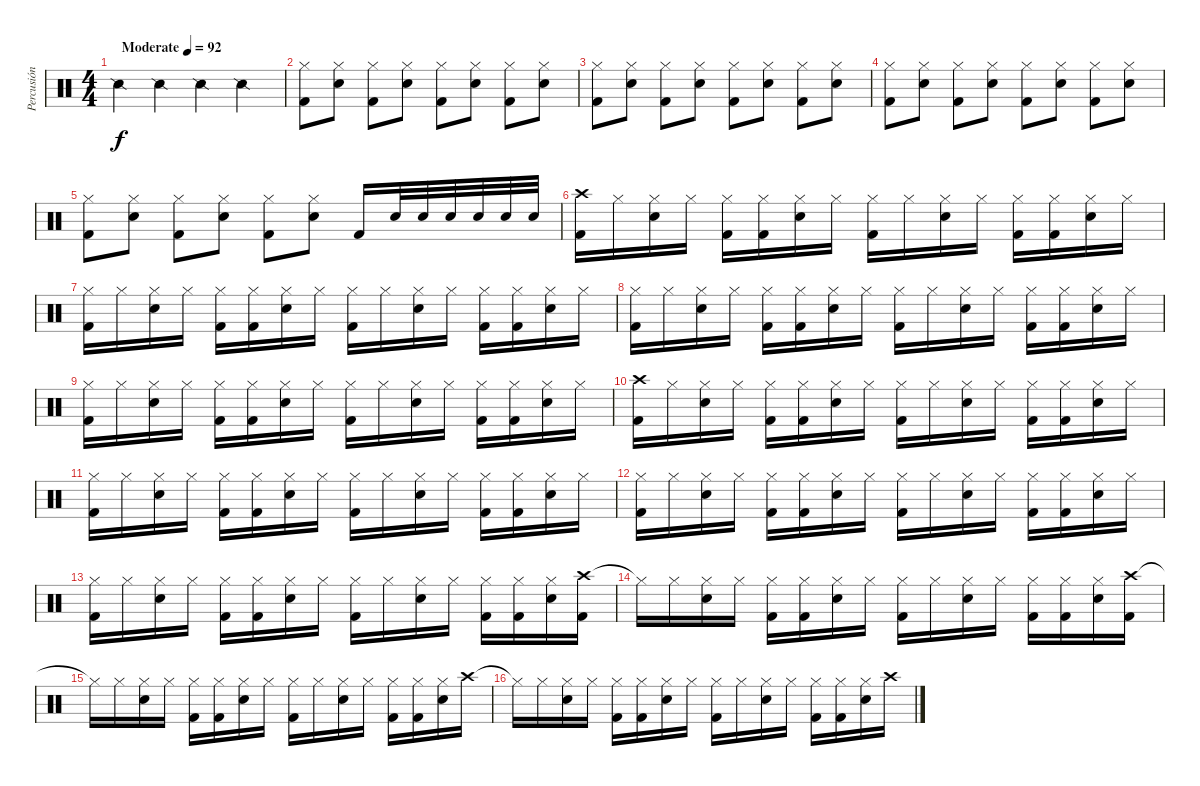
\track ("Percusión" "Percusión") {instrument percussion}
\staff {score}
\articulation defaults
\ts (4 4)
\tempo (92 "Moderate")
\clef neutral
\ks c "Snare (side stick) 2".4{dy f} "Snare (side stick) 2".4 "Snare (side stick) 2".4 "Snare (side stick) 2".4
|
("Hi-Hat (closed)" "Kick (hit) 2").8 ("Hi-Hat (closed)" "Electric Snare (hit)").8 ("Hi-Hat (closed)" "Kick (hit) 2").8 ("Hi-Hat (closed)" "Electric Snare (hit)").8 ("Hi-Hat (closed)" "Kick (hit) 2").8 ("Hi-Hat (closed)" "Electric Snare (hit)").8 ("Hi-Hat (closed)" "Kick (hit) 2").8 ("Hi-Hat (closed)" "Electric Snare (hit)").8 |
("Hi-Hat (closed)" "Kick (hit) 2").8 ("Hi-Hat (closed)" "Electric Snare (hit)").8 ("Hi-Hat (closed)" "Kick (hit) 2").8 ("Hi-Hat (closed)" "Electric Snare (hit)").8 ("Hi-Hat (closed)" "Kick (hit) 2").8 ("Hi-Hat (closed)" "Electric Snare (hit)").8 ("Hi-Hat (closed)" "Kick (hit) 2").8 ("Hi-Hat (closed)" "Electric Snare (hit)").8 |
("Hi-Hat (closed)" "Kick (hit) 2").8 ("Hi-Hat (closed)" "Electric Snare (hit)").8 ("Hi-Hat (closed)" "Kick (hit) 2").8 ("Hi-Hat (closed)" "Electric Snare (hit)").8 ("Hi-Hat (closed)" "Kick (hit) 2").8 ("Hi-Hat (closed)" "Electric Snare (hit)").8 ("Hi-Hat (closed)" "Kick (hit) 2").8 ("Hi-Hat (closed)" "Electric Snare (hit)").8 |
("Hi-Hat (closed)" "Kick (hit) 2").8 ("Hi-Hat (closed)" "Electric Snare (hit)").8 ("Hi-Hat (closed)" "Kick (hit) 2").8 ("Hi-Hat (closed)" "Electric Snare (hit)").8 ("Hi-Hat (closed)" "Kick (hit) 2").8 ("Hi-Hat (closed)" "Electric Snare (hit)").8 "Kick (hit) 2".16 "Electric Snare (hit)".32 "Electric Snare (hit)".32 "Electric Snare (hit)".32 "Electric Snare (hit)".32 "Electric Snare (hit)".32 "Electric Snare (hit)".32 |
("Crash high (hit)" "Kick (hit) 2").16 "Hi-Hat (closed)".16 ("Hi-Hat (closed)" "Electric Snare (hit)").16 "Hi-Hat (closed)".16 ("Hi-Hat (closed)" "Kick (hit) 2").16 ("Hi-Hat (closed)" "Kick (hit) 2").16 ("Hi-Hat (closed)" "Electric Snare (hit)").16 "Hi-Hat (closed)".16 ("Hi-Hat (closed)" "Kick (hit) 2").16 "Hi-Hat (closed)".16 ("Hi-Hat (closed)" "Electric Snare (hit)").16 "Hi-Hat (closed)".16 ("Hi-Hat (closed)" "Kick (hit) 2").16 ("Hi-Hat (closed)" "Kick (hit) 2").16 ("Hi-Hat (closed)" "Electric Snare (hit)").16 "Hi-Hat (closed)".16 |
("Hi-Hat (closed)" "Kick (hit) 2").16 "Hi-Hat (closed)".16 ("Hi-Hat (closed)" "Electric Snare (hit)").16 "Hi-Hat (closed)".16 ("Hi-Hat (closed)" "Kick (hit) 2").16 ("Hi-Hat (closed)" "Kick (hit) 2").16 ("Hi-Hat (closed)" "Electric Snare (hit)").16 "Hi-Hat (closed)".16 ("Hi-Hat (closed)" "Kick (hit) 2").16 "Hi-Hat (closed)".16 ("Hi-Hat (closed)" "Electric Snare (hit)").16 "Hi-Hat (closed)".16 ("Hi-Hat (closed)" "Kick (hit) 2").16 ("Hi-Hat (closed)" "Kick (hit) 2").16 ("Hi-Hat (closed)" "Electric Snare (hit)").16 "Hi-Hat (closed)".16 |
("Hi-Hat (closed)" "Kick (hit) 2").16 "Hi-Hat (closed)".16 ("Hi-Hat (closed)" "Electric Snare (hit)").16 "Hi-Hat (closed)".16 ("Hi-Hat (closed)" "Kick (hit) 2").16 ("Hi-Hat (closed)" "Kick (hit) 2").16 ("Hi-Hat (closed)" "Electric Snare (hit)").16 "Hi-Hat (closed)".16 ("Hi-Hat (closed)" "Kick (hit) 2").16 "Hi-Hat (closed)".16 ("Hi-Hat (closed)" "Electric Snare (hit)").16 "Hi-Hat (closed)".16 ("Hi-Hat (closed)" "Kick (hit) 2").16 ("Hi-Hat (closed)" "Kick (hit) 2").16 ("Hi-Hat (closed)" "Electric Snare (hit)").16 "Hi-Hat (closed)".16 |
("Hi-Hat (closed)" "Kick (hit) 2").16 "Hi-Hat (closed)".16 ("Hi-Hat (closed)" "Electric Snare (hit)").16 "Hi-Hat (closed)".16 ("Hi-Hat (closed)" "Kick (hit) 2").16 ("Hi-Hat (closed)" "Kick (hit) 2").16 ("Hi-Hat (closed)" "Electric Snare (hit)").16 "Hi-Hat (closed)".16 ("Hi-Hat (closed)" "Kick (hit) 2").16 "Hi-Hat (closed)".16 ("Hi-Hat (closed)" "Electric Snare (hit)").16 "Hi-Hat (closed)".16 ("Hi-Hat (closed)" "Kick (hit) 2").16 ("Hi-Hat (closed)" "Kick (hit) 2").16 ("Hi-Hat (closed)" "Electric Snare (hit)").16 "Hi-Hat (closed)".16 |
("Crash high (hit)" "Kick (hit) 2").16 "Hi-Hat (closed)".16 ("Hi-Hat (closed)" "Electric Snare (hit)").16 "Hi-Hat (closed)".16 ("Hi-Hat (closed)" "Kick (hit) 2").16 ("Hi-Hat (closed)" "Kick (hit) 2").16 ("Hi-Hat (closed)" "Electric Snare (hit)").16 "Hi-Hat (closed)".16 ("Hi-Hat (closed)" "Kick (hit) 2").16 "Hi-Hat (closed)".16 ("Hi-Hat (closed)" "Electric Snare (hit)").16 "Hi-Hat (closed)".16 ("Hi-Hat (closed)" "Kick (hit) 2").16 ("Hi-Hat (closed)" "Kick (hit) 2").16 ("Hi-Hat (closed)" "Electric Snare (hit)").16 "Hi-Hat (closed)".16 |
("Hi-Hat (closed)" "Kick (hit) 2").16 "Hi-Hat (closed)".16 ("Hi-Hat (closed)" "Electric Snare (hit)").16 "Hi-Hat (closed)".16 ("Hi-Hat (closed)" "Kick (hit) 2").16 ("Hi-Hat (closed)" "Kick (hit) 2").16 ("Hi-Hat (closed)" "Electric Snare (hit)").16 "Hi-Hat (closed)".16 ("Hi-Hat (closed)" "Kick (hit) 2").16 "Hi-Hat (closed)".16 ("Hi-Hat (closed)" "Electric Snare (hit)").16 "Hi-Hat (closed)".16 ("Hi-Hat (closed)" "Kick (hit) 2").16 ("Hi-Hat (closed)" "Kick (hit) 2").16 ("Hi-Hat (closed)" "Electric Snare (hit)").16 "Hi-Hat (closed)".16 |
("Hi-Hat (closed)" "Kick (hit) 2").16 "Hi-Hat (closed)".16 ("Hi-Hat (closed)" "Electric Snare (hit)").16 "Hi-Hat (closed)".16 ("Hi-Hat (closed)" "Kick (hit) 2").16 ("Hi-Hat (closed)" "Kick (hit) 2").16 ("Hi-Hat (closed)" "Electric Snare (hit)").16 "Hi-Hat (closed)".16 ("Hi-Hat (closed)" "Kick (hit) 2").16 "Hi-Hat (closed)".16 ("Hi-Hat (closed)" "Electric Snare (hit)").16 "Hi-Hat (closed)".16 ("Hi-Hat (closed)" "Kick (hit) 2").16 ("Hi-Hat (closed)" "Kick (hit) 2").16 ("Hi-Hat (closed)" "Electric Snare (hit)").16 "Hi-Hat (closed)".16 |
("Hi-Hat (closed)" "Kick (hit) 2").16 "Hi-Hat (closed)".16 ("Hi-Hat (closed)" "Electric Snare (hit)").16 "Hi-Hat (closed)".16 ("Hi-Hat (closed)" "Kick (hit) 2").16 ("Hi-Hat (closed)" "Kick (hit) 2").16 ("Hi-Hat (closed)" "Electric Snare (hit)").16 "Hi-Hat (closed)".16 ("Hi-Hat (closed)" "Kick (hit) 2").16 "Hi-Hat (closed)".16 ("Hi-Hat (closed)" "Electric Snare (hit)").16 "Hi-Hat (closed)".16 ("Hi-Hat (closed)" "Kick (hit) 2").16 ("Hi-Hat (closed)" "Kick (hit) 2").16 ("Hi-Hat (closed)" "Electric Snare (hit)").16 ("Crash high (hit)" "Kick (hit) 2").16 |
"Hi-Hat (closed)"{t}.16 "Hi-Hat (closed)".16 ("Hi-Hat (closed)" "Electric Snare (hit)").16 "Hi-Hat (closed)".16 ("Hi-Hat (closed)" "Kick (hit) 2").16 ("Hi-Hat (closed)" "Kick (hit) 2").16 ("Hi-Hat (closed)" "Electric Snare (hit)").16 "Hi-Hat (closed)".16 ("Hi-Hat (closed)" "Kick (hit) 2").16 "Hi-Hat (closed)".16 ("Hi-Hat (closed)" "Electric Snare (hit)").16 "Hi-Hat (closed)".16 ("Hi-Hat (closed)" "Kick (hit) 2").16 ("Hi-Hat (closed)" "Kick (hit) 2").16 ("Hi-Hat (closed)" "Electric Snare (hit)").16 ("Crash high (hit)" "Kick (hit) 2").16 |
"Hi-Hat (closed)"{t}.16 "Hi-Hat (closed)".16 ("Hi-Hat (closed)" "Electric Snare (hit)").16 "Hi-Hat (closed)".16 ("Hi-Hat (closed)" "Kick (hit) 2").16 ("Hi-Hat (closed)" "Kick (hit) 2").16 ("Hi-Hat (closed)" "Electric Snare (hit)").16 "Hi-Hat (closed)".16 ("Hi-Hat (closed)" "Kick (hit) 2").16 "Hi-Hat (closed)".16 ("Hi-Hat (closed)" "Electric Snare (hit)").16 "Hi-Hat (closed)".16 ("Hi-Hat (closed)" "Kick (hit) 2").16 ("Hi-Hat (closed)" "Kick (hit) 2").16 ("Hi-Hat (closed)" "Electric Snare (hit)").16 "Crash high (hit)".16 |
"Hi-Hat (closed)"{t}.16 "Hi-Hat (closed)".16 ("Hi-Hat (closed)" "Electric Snare (hit)").16 "Hi-Hat (closed)".16 ("Hi-Hat (closed)" "Kick (hit) 2").16 ("Hi-Hat (closed)" "Kick (hit) 2").16 ("Hi-Hat (closed)" "Electric Snare (hit)").16 "Hi-Hat (closed)".16 ("Hi-Hat (closed)" "Kick (hit) 2").16 "Hi-Hat (closed)".16 ("Hi-Hat (closed)" "Electric Snare (hit)").16 "Hi-Hat (closed)".16 ("Hi-Hat (closed)" "Kick (hit) 2").16 ("Hi-Hat (closed)" "Kick (hit) 2").16 ("Hi-Hat (closed)" "Electric Snare (hit)").16 "Crash high (hit)".16
